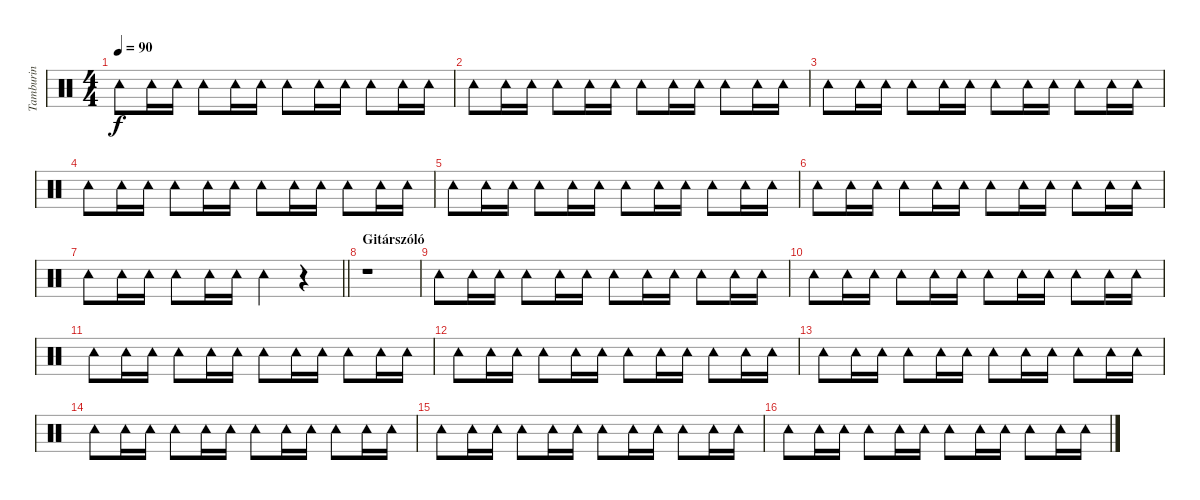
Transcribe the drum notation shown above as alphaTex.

\track ("Tamburin" "Tamburin") {instrument percussion}
\staff {score}
\articulation defaults
\ts (4 4)
\tempo 90
\clef neutral
\ks c "Tambourine (hit)".8{dy f} "Tambourine (hit)".16 "Tambourine (hit)".16 "Tambourine (hit)".8 "Tambourine (hit)".16 "Tambourine (hit)".16 "Tambourine (hit)".8 "Tambourine (hit)".16 "Tambourine (hit)".16 "Tambourine (hit)".8 "Tambourine (hit)".16 "Tambourine (hit)".16
|
"Tambourine (hit)".8 "Tambourine (hit)".16 "Tambourine (hit)".16 "Tambourine (hit)".8 "Tambourine (hit)".16 "Tambourine (hit)".16 "Tambourine (hit)".8 "Tambourine (hit)".16 "Tambourine (hit)".16 "Tambourine (hit)".8 "Tambourine (hit)".16 "Tambourine (hit)".16 |
"Tambourine (hit)".8 "Tambourine (hit)".16 "Tambourine (hit)".16 "Tambourine (hit)".8 "Tambourine (hit)".16 "Tambourine (hit)".16 "Tambourine (hit)".8 "Tambourine (hit)".16 "Tambourine (hit)".16 "Tambourine (hit)".8 "Tambourine (hit)".16 "Tambourine (hit)".16 |
"Tambourine (hit)".8 "Tambourine (hit)".16 "Tambourine (hit)".16 "Tambourine (hit)".8 "Tambourine (hit)".16 "Tambourine (hit)".16 "Tambourine (hit)".8 "Tambourine (hit)".16 "Tambourine (hit)".16 "Tambourine (hit)".8 "Tambourine (hit)".16 "Tambourine (hit)".16 |
"Tambourine (hit)".8 "Tambourine (hit)".16 "Tambourine (hit)".16 "Tambourine (hit)".8 "Tambourine (hit)".16 "Tambourine (hit)".16 "Tambourine (hit)".8 "Tambourine (hit)".16 "Tambourine (hit)".16 "Tambourine (hit)".8 "Tambourine (hit)".16 "Tambourine (hit)".16 |
"Tambourine (hit)".8 "Tambourine (hit)".16 "Tambourine (hit)".16 "Tambourine (hit)".8 "Tambourine (hit)".16 "Tambourine (hit)".16 "Tambourine (hit)".8 "Tambourine (hit)".16 "Tambourine (hit)".16 "Tambourine (hit)".8 "Tambourine (hit)".16 "Tambourine (hit)".16 |
\barLineRight lightlight "Tambourine (hit)".8 "Tambourine (hit)".16 "Tambourine (hit)".16 "Tambourine (hit)".8 "Tambourine (hit)".16 "Tambourine (hit)".16 "Tambourine (hit)".4
r.4 |
\section ("" "Gitárszóló")
r.1 |
"Tambourine (hit)".8 "Tambourine (hit)".16 "Tambourine (hit)".16 "Tambourine (hit)".8 "Tambourine (hit)".16 "Tambourine (hit)".16 "Tambourine (hit)".8 "Tambourine (hit)".16 "Tambourine (hit)".16 "Tambourine (hit)".8 "Tambourine (hit)".16 "Tambourine (hit)".16 |
"Tambourine (hit)".8 "Tambourine (hit)".16 "Tambourine (hit)".16 "Tambourine (hit)".8 "Tambourine (hit)".16 "Tambourine (hit)".16 "Tambourine (hit)".8 "Tambourine (hit)".16 "Tambourine (hit)".16 "Tambourine (hit)".8 "Tambourine (hit)".16 "Tambourine (hit)".16 |
"Tambourine (hit)".8 "Tambourine (hit)".16 "Tambourine (hit)".16 "Tambourine (hit)".8 "Tambourine (hit)".16 "Tambourine (hit)".16 "Tambourine (hit)".8 "Tambourine (hit)".16 "Tambourine (hit)".16 "Tambourine (hit)".8 "Tambourine (hit)".16 "Tambourine (hit)".16 |
"Tambourine (hit)".8 "Tambourine (hit)".16 "Tambourine (hit)".16 "Tambourine (hit)".8 "Tambourine (hit)".16 "Tambourine (hit)".16 "Tambourine (hit)".8 "Tambourine (hit)".16 "Tambourine (hit)".16 "Tambourine (hit)".8 "Tambourine (hit)".16 "Tambourine (hit)".16 |
"Tambourine (hit)".8 "Tambourine (hit)".16 "Tambourine (hit)".16 "Tambourine (hit)".8 "Tambourine (hit)".16 "Tambourine (hit)".16 "Tambourine (hit)".8 "Tambourine (hit)".16 "Tambourine (hit)".16 "Tambourine (hit)".8 "Tambourine (hit)".16 "Tambourine (hit)".16 |
"Tambourine (hit)".8 "Tambourine (hit)".16 "Tambourine (hit)".16 "Tambourine (hit)".8 "Tambourine (hit)".16 "Tambourine (hit)".16 "Tambourine (hit)".8 "Tambourine (hit)".16 "Tambourine (hit)".16 "Tambourine (hit)".8 "Tambourine (hit)".16 "Tambourine (hit)".16 |
"Tambourine (hit)".8 "Tambourine (hit)".16 "Tambourine (hit)".16 "Tambourine (hit)".8 "Tambourine (hit)".16 "Tambourine (hit)".16 "Tambourine (hit)".8 "Tambourine (hit)".16 "Tambourine (hit)".16 "Tambourine (hit)".8 "Tambourine (hit)".16 "Tambourine (hit)".16 |
"Tambourine (hit)".8 "Tambourine (hit)".16 "Tambourine (hit)".16 "Tambourine (hit)".8 "Tambourine (hit)".16 "Tambourine (hit)".16 "Tambourine (hit)".8 "Tambourine (hit)".16 "Tambourine (hit)".16 "Tambourine (hit)".8 "Tambourine (hit)".16 "Tambourine (hit)".16
